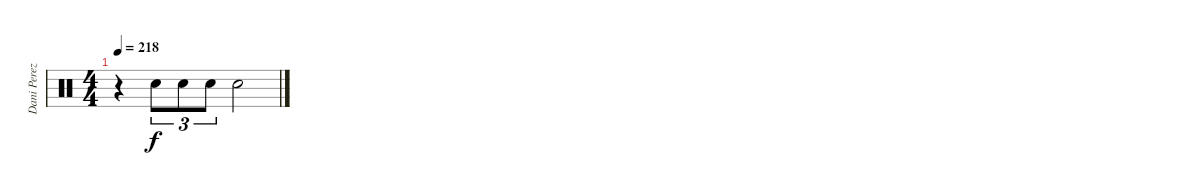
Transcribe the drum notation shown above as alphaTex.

\track ("Dani Perez" "Dani Perez") {instrument percussion}
\staff {score}
\articulation defaults
\ts (4 4)
\tempo 218
\clef neutral
\ks c
r.4{dy f} "Snare (hit) 2".8{tu (3 2)} "Snare (hit) 2".8{tu (3 2)} "Snare (hit) 2".8{tu (3 2)} "Snare (hit) 2".2
